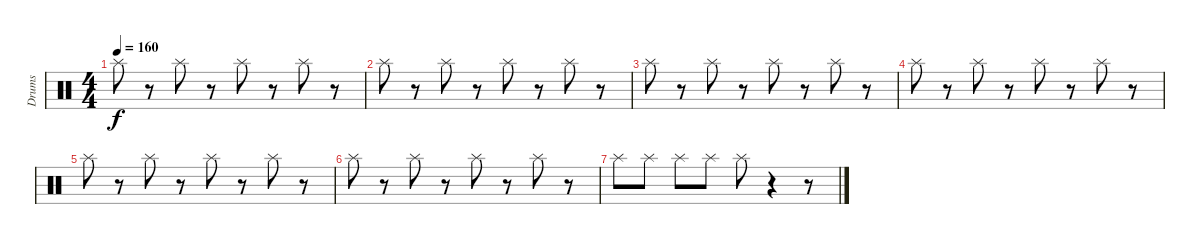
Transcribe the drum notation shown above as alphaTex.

\track ("Drums" "Drums") {instrument percussion}
\staff {score}
\articulation defaults
\ts (4 4)
\tempo 160
\clef neutral
\ks c "Splash (hit)".8{dy f}
r.8 "Splash (hit)".8 r.8 "Splash (hit)".8 r.8 "Splash (hit)".8 r.8 |
"Splash (hit)".8 r.8 "Splash (hit)".8 r.8 "Splash (hit)".8 r.8 "Splash (hit)".8 r.8 |
"Splash (hit)".8 r.8 "Splash (hit)".8 r.8 "Splash (hit)".8 r.8 "Splash (hit)".8 r.8 |
"Splash (hit)".8 r.8 "Splash (hit)".8 r.8 "Splash (hit)".8 r.8 "Splash (hit)".8 r.8 |
"Splash (hit)".8 r.8 "Splash (hit)".8 r.8 "Splash (hit)".8 r.8 "Splash (hit)".8 r.8 |
"Splash (hit)".8 r.8 "Splash (hit)".8 r.8 "Splash (hit)".8 r.8 "Splash (hit)".8 r.8 |
"Splash (hit)".8 "Splash (hit)".8 "Splash (hit)".8 "Splash (hit)".8 "Splash (hit)".8 r.4 r.8
